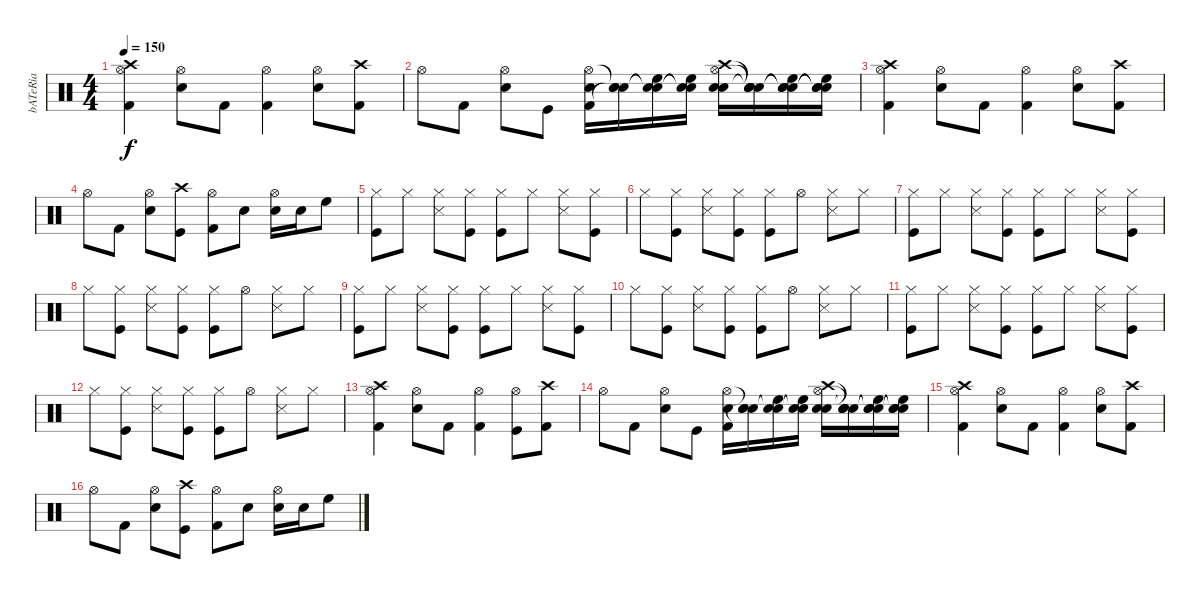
\track ("bATeRia" "bATeRia") {instrument percussion}
\staff {score}
\articulation defaults
\ts (4 4)
\tempo 150
\clef neutral
\ks c
("Hi-Hat (open)" "Kick (hit) 2" "Crash high (hit)").4{dy f} ("Hi-Hat (open)" "Snare (hit) 2").8 "Kick (hit) 2".8 ("Hi-Hat (open)" "Kick (hit) 2").4 ("Hi-Hat (open)" "Snare (hit) 2").8 ("Kick (hit) 2" "Crash high (hit)").8 |
"Hi-Hat (open)".8 "Kick (hit) 2".8 ("Hi-Hat (open)" "Snare (hit) 2").8 "Kick (hit)".8 ("Hi-Hat (open)" "Kick (hit) 2" "Snare (hit) 2").16 ("Snare (hit)"{t} "Snare (hit)"{t} "Snare (hit) 2").16 ("Snare (hit)"{t} "Snare (hit)"{t} "High Floor Tom (hit)").16 ("Snare (hit)"{t} "Snare (hit)"{t} "High Floor Tom (hit)").16 ("Hi-Hat (open)" "Snare (hit) 2" "Crash high (hit)" "Snare (hit) 2").16 ("Snare (hit)"{t} "Snare (hit)"{t} "Snare (hit)"{t} "Snare (hit) 2").16 ("Snare (hit)"{t} "Snare (hit)"{t} "Snare (hit)"{t} "High Floor Tom (hit)").16 ("Snare (hit)"{t} "Snare (hit)"{t} "Snare (hit)"{t} "High Floor Tom (hit)").16 |
("Hi-Hat (open)" "Kick (hit) 2" "Crash high (hit)").4 ("Hi-Hat (open)" "Snare (hit) 2").8 "Kick (hit) 2".8 ("Hi-Hat (open)" "Kick (hit) 2").4 ("Hi-Hat (open)" "Snare (hit) 2").8 ("Kick (hit) 2" "Crash high (hit)").8 |
"Hi-Hat (open)".8 "Kick (hit) 2".8 ("Hi-Hat (open)" "Snare (hit) 2").8 ("Kick (hit)" "Crash high (hit)").8 ("Hi-Hat (open)" "Kick (hit) 2").8 "Snare (hit) 2".8 ("Hi-Hat (open)" "Snare (hit) 2").16 "Snare (hit) 2".16 "High Floor Tom (hit)".8 |
("Hi-Hat (closed)" "Kick (hit)").8 "Hi-Hat (closed)".8 ("Hi-Hat (closed)" "Snare (side stick) 3").8 ("Hi-Hat (closed)" "Kick (hit)").8 ("Hi-Hat (closed)" "Kick (hit)").8 "Hi-Hat (closed)".8 ("Hi-Hat (closed)" "Snare (side stick) 3").8 ("Hi-Hat (closed)" "Kick (hit)").8 |
"Hi-Hat (closed)".8 ("Hi-Hat (closed)" "Kick (hit)").8 ("Hi-Hat (closed)" "Snare (side stick) 3").8 ("Hi-Hat (closed)" "Kick (hit)").8 ("Hi-Hat (closed)" "Kick (hit)").8 "Hi-Hat (open)".8 ("Hi-Hat (closed)" "Snare (side stick) 3").8 "Hi-Hat (closed)".8 |
("Hi-Hat (closed)" "Kick (hit)").8 "Hi-Hat (closed)".8 ("Hi-Hat (closed)" "Snare (side stick) 3").8 ("Hi-Hat (closed)" "Kick (hit)").8 ("Hi-Hat (closed)" "Kick (hit)").8 "Hi-Hat (closed)".8 ("Hi-Hat (closed)" "Snare (side stick) 3").8 ("Hi-Hat (closed)" "Kick (hit)").8 |
"Hi-Hat (closed)".8 ("Hi-Hat (closed)" "Kick (hit)").8 ("Hi-Hat (closed)" "Snare (side stick) 3").8 ("Hi-Hat (closed)" "Kick (hit)").8 ("Hi-Hat (closed)" "Kick (hit)").8 "Hi-Hat (open)".8 ("Hi-Hat (closed)" "Snare (side stick) 3").8 "Hi-Hat (closed)".8 |
("Hi-Hat (closed)" "Kick (hit)").8 "Hi-Hat (closed)".8 ("Hi-Hat (closed)" "Snare (side stick) 3").8 ("Hi-Hat (closed)" "Kick (hit)").8 ("Hi-Hat (closed)" "Kick (hit)").8 "Hi-Hat (closed)".8 ("Hi-Hat (closed)" "Snare (side stick) 3").8 ("Hi-Hat (closed)" "Kick (hit)").8 |
"Hi-Hat (closed)".8 ("Hi-Hat (closed)" "Kick (hit)").8 ("Hi-Hat (closed)" "Snare (side stick) 3").8 ("Hi-Hat (closed)" "Kick (hit)").8 ("Hi-Hat (closed)" "Kick (hit)").8 "Hi-Hat (open)".8 ("Hi-Hat (closed)" "Snare (side stick) 3").8 "Hi-Hat (closed)".8 |
("Hi-Hat (closed)" "Kick (hit)").8 "Hi-Hat (closed)".8 ("Hi-Hat (closed)" "Snare (side stick) 3").8 ("Hi-Hat (closed)" "Kick (hit)").8 ("Hi-Hat (closed)" "Kick (hit)").8 "Hi-Hat (closed)".8 ("Hi-Hat (closed)" "Snare (side stick) 3").8 ("Hi-Hat (closed)" "Kick (hit)").8 |
"Hi-Hat (closed)".8 ("Hi-Hat (closed)" "Kick (hit)").8 ("Hi-Hat (closed)" "Snare (side stick) 3").8 ("Hi-Hat (closed)" "Kick (hit)").8 ("Hi-Hat (closed)" "Kick (hit)").8 "Hi-Hat (open)".8 ("Hi-Hat (closed)" "Snare (side stick) 3").8 "Hi-Hat (closed)".8 |
("Hi-Hat (open)" "Kick (hit) 2" "Crash high (hit)").4 ("Hi-Hat (open)" "Snare (hit) 2").8 "Kick (hit) 2".8 ("Hi-Hat (open)" "Kick (hit) 2").4 ("Hi-Hat (open)" "Kick (hit)").8 ("Kick (hit) 2" "Crash high (hit)").8 |
"Hi-Hat (open)".8 "Kick (hit) 2".8 ("Hi-Hat (open)" "Snare (hit) 2").8 "Kick (hit)".8 ("Hi-Hat (open)" "Kick (hit) 2" "Snare (hit) 2").16 ("Snare (hit)"{t} "Snare (hit)"{t} "Snare (hit) 2").16 ("Snare (hit)"{t} "Snare (hit)"{t} "High Floor Tom (hit)").16 ("Snare (hit)"{t} "Snare (hit)"{t} "High Floor Tom (hit)").16 ("Hi-Hat (open)" "Snare (hit) 2" "Crash high (hit)" "Snare (hit) 2").16 ("Snare (hit)"{t} "Snare (hit)"{t} "Snare (hit)"{t} "Snare (hit) 2").16 ("Snare (hit)"{t} "Snare (hit)"{t} "Snare (hit)"{t} "High Floor Tom (hit)").16 ("Snare (hit)"{t} "Snare (hit)"{t} "Snare (hit)"{t} "High Floor Tom (hit)").16 |
("Hi-Hat (open)" "Kick (hit) 2" "Crash high (hit)").4 ("Hi-Hat (open)" "Snare (hit) 2").8 "Kick (hit) 2".8 ("Hi-Hat (open)" "Kick (hit) 2").4 ("Hi-Hat (open)" "Snare (hit) 2").8 ("Kick (hit) 2" "Crash high (hit)").8 |
"Hi-Hat (open)".8 "Kick (hit) 2".8 ("Hi-Hat (open)" "Snare (hit) 2").8 ("Kick (hit)" "Crash high (hit)").8 ("Hi-Hat (open)" "Kick (hit) 2").8 "Snare (hit) 2".8 ("Hi-Hat (open)" "Snare (hit) 2").16 "Snare (hit) 2".16 "High Floor Tom (hit)".8
